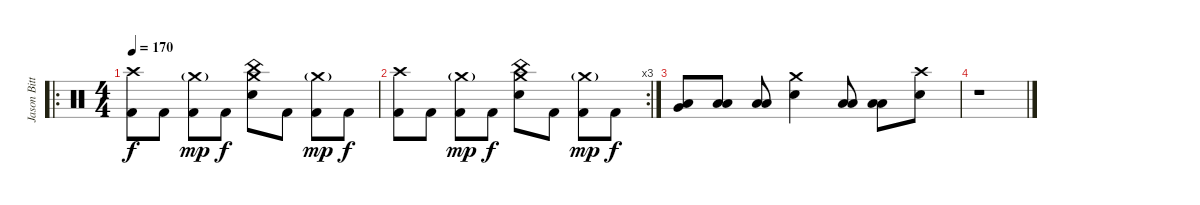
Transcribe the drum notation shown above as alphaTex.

\track ("Jason Bittner" "Jason Bitt") {instrument percussion}
\staff {score}
\articulation defaults
\ro
\ts (4 4)
\tempo 170
\clef neutral
\ks c
("Crash high (hit)" "Kick (hit) 2").8{dy f} "Kick (hit) 2".8 ("Crash medium (hit)"{g} "Kick (hit) 2").8{dy mp} "Kick (hit) 2".8{dy f} ("Crash medium (hit)" "China (hit)" "Electric Snare (hit)").8 "Kick (hit) 2".8 ("Crash medium (hit)"{g} "Kick (hit) 2").8{dy mp} "Kick (hit) 2".8{dy f} |
\rc 3
("Crash high (hit)" "Kick (hit) 2").8 "Kick (hit) 2".8 ("Crash medium (hit)"{g} "Kick (hit) 2").8{dy mp} "Kick (hit) 2".8{dy f} ("Crash medium (hit)" "China (hit)" "Electric Snare (hit)").8 "Kick (hit) 2".8 ("Crash medium (hit)"{g} "Kick (hit) 2").8{dy mp} "Kick (hit) 2".8{dy f} |
("Very Low Tom (hit)" "Low Tom (hit)").8 ("Low Floor Tom (hit)" "Low Tom (hit)").8 ("Low Floor Tom (hit)" "Low Tom (hit)").8 ("Crash medium (hit)" "Electric Snare (hit)").4 ("Low Tom (hit)" "Low Tom (hit)").8 ("Low Tom (hit)" "Low Tom (hit)").8 ("Crash high (hit)" "Electric Snare (hit)").8 |
r.1
